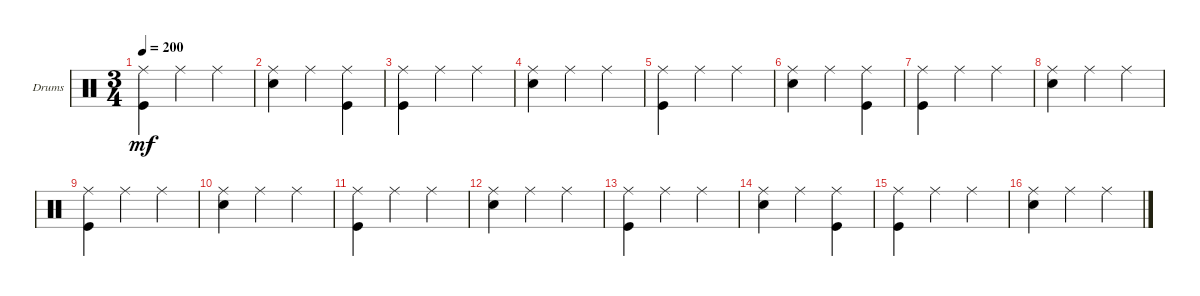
\bracketExtendMode groupsimilarinstruments
\firstSystemTrackNameOrientation horizontal
\otherSystemsTrackNameOrientation horizontal
\track ("Drumkit" "Drums") {instrument percussion}
\staff {score}
\articulation defaults
\ts (3 4)
\tempo 200
\clef neutral
\scale
0.333333
\ks c
("Kick (hit)" "Ride (middle)").4{dy mf} "Ride (middle)".4 "Ride (middle)".4 |
\scale
0.333333 ("Snare (hit) 2" "Ride (middle)").4 "Ride (middle)".4 ("Ride (middle)" "Kick (hit)").4 |
\scale
0.333333 ("Kick (hit)" "Ride (middle)").4 "Ride (middle)".4 "Ride (middle)".4 |
\scale
0.333333 ("Snare (hit) 2" "Ride (middle)").4 "Ride (middle)".4 "Ride (middle)".4 |
\scale
0.333333 ("Kick (hit)" "Ride (middle)").4 "Ride (middle)".4 "Ride (middle)".4 |
\scale
0.333333 ("Snare (hit) 2" "Ride (middle)").4 "Ride (middle)".4 ("Ride (middle)" "Kick (hit)").4 |
\scale
0.333333 ("Kick (hit)" "Ride (middle)").4 "Ride (middle)".4 "Ride (middle)".4 |
\scale
0.333333 ("Snare (hit) 2" "Ride (middle)").4 "Ride (middle)".4 "Ride (middle)".4 |
\scale
0.333333 ("Kick (hit)" "Ride (middle)").4 "Ride (middle)".4 "Ride (middle)".4 |
\scale
0.333333 ("Snare (hit) 2" "Ride (middle)").4 "Ride (middle)".4 "Ride (middle)".4 |
\scale
0.333333 ("Kick (hit)" "Ride (middle)").4 "Ride (middle)".4 "Ride (middle)".4 |
\scale
0.333333 ("Snare (hit) 2" "Ride (middle)").4 "Ride (middle)".4 "Ride (middle)".4 |
\scale
0.333333 ("Kick (hit)" "Ride (middle)").4 "Ride (middle)".4 "Ride (middle)".4 |
\scale
0.333333 ("Snare (hit) 2" "Ride (middle)").4 "Ride (middle)".4 ("Ride (middle)" "Kick (hit)").4 |
\scale
0.333333 ("Kick (hit)" "Ride (middle)").4 "Ride (middle)".4 "Ride (middle)".4 |
\scale
0.333333 ("Snare (hit) 2" "Ride (middle)").4 "Ride (middle)".4 "Ride (middle)".4
